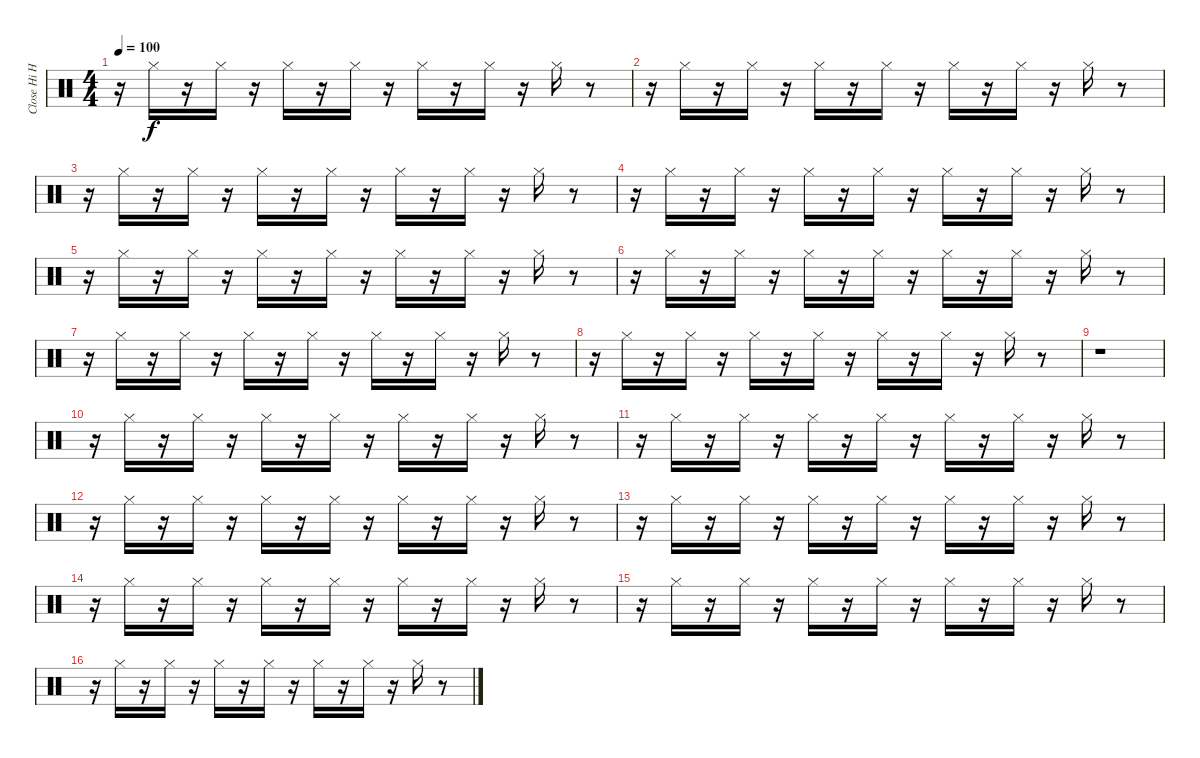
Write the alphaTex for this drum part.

\track ("Close Hi Hat" "Close Hi H") {instrument percussion}
\staff {score}
\articulation defaults
\ts (4 4)
\tempo 100
\clef neutral
\ks c
r.16{dy f} "Hi-Hat (closed)".16 r.16 "Hi-Hat (closed)".16 r.16 "Hi-Hat (closed)".16 r.16 "Hi-Hat (closed)".16 r.16 "Hi-Hat (closed)".16 r.16 "Hi-Hat (closed)".16 r.16 "Hi-Hat (closed)".16 r.8 |
r.16 "Hi-Hat (closed)".16 r.16 "Hi-Hat (closed)".16 r.16 "Hi-Hat (closed)".16 r.16 "Hi-Hat (closed)".16 r.16 "Hi-Hat (closed)".16 r.16 "Hi-Hat (closed)".16 r.16 "Hi-Hat (closed)".16 r.8 |
r.16 "Hi-Hat (closed)".16 r.16 "Hi-Hat (closed)".16 r.16 "Hi-Hat (closed)".16 r.16 "Hi-Hat (closed)".16 r.16 "Hi-Hat (closed)".16 r.16 "Hi-Hat (closed)".16 r.16 "Hi-Hat (closed)".16 r.8 |
r.16 "Hi-Hat (closed)".16 r.16 "Hi-Hat (closed)".16 r.16 "Hi-Hat (closed)".16 r.16 "Hi-Hat (closed)".16 r.16 "Hi-Hat (closed)".16 r.16 "Hi-Hat (closed)".16 r.16 "Hi-Hat (closed)".16 r.8 |
r.16 "Hi-Hat (closed)".16 r.16 "Hi-Hat (closed)".16 r.16 "Hi-Hat (closed)".16 r.16 "Hi-Hat (closed)".16 r.16 "Hi-Hat (closed)".16 r.16 "Hi-Hat (closed)".16 r.16 "Hi-Hat (closed)".16 r.8 |
r.16 "Hi-Hat (closed)".16 r.16 "Hi-Hat (closed)".16 r.16 "Hi-Hat (closed)".16 r.16 "Hi-Hat (closed)".16 r.16 "Hi-Hat (closed)".16 r.16 "Hi-Hat (closed)".16 r.16 "Hi-Hat (closed)".16 r.8 |
r.16 "Hi-Hat (closed)".16 r.16 "Hi-Hat (closed)".16 r.16 "Hi-Hat (closed)".16 r.16 "Hi-Hat (closed)".16 r.16 "Hi-Hat (closed)".16 r.16 "Hi-Hat (closed)".16 r.16 "Hi-Hat (closed)".16 r.8 |
r.16 "Hi-Hat (closed)".16 r.16 "Hi-Hat (closed)".16 r.16 "Hi-Hat (closed)".16 r.16 "Hi-Hat (closed)".16 r.16 "Hi-Hat (closed)".16 r.16 "Hi-Hat (closed)".16 r.16 "Hi-Hat (closed)".16 r.8 |
r.1 |
r.16 "Hi-Hat (closed)".16 r.16 "Hi-Hat (closed)".16 r.16 "Hi-Hat (closed)".16 r.16 "Hi-Hat (closed)".16 r.16 "Hi-Hat (closed)".16 r.16 "Hi-Hat (closed)".16 r.16 "Hi-Hat (closed)".16 r.8 |
r.16 "Hi-Hat (closed)".16 r.16 "Hi-Hat (closed)".16 r.16 "Hi-Hat (closed)".16 r.16 "Hi-Hat (closed)".16 r.16 "Hi-Hat (closed)".16 r.16 "Hi-Hat (closed)".16 r.16 "Hi-Hat (closed)".16 r.8 |
r.16 "Hi-Hat (closed)".16 r.16 "Hi-Hat (closed)".16 r.16 "Hi-Hat (closed)".16 r.16 "Hi-Hat (closed)".16 r.16 "Hi-Hat (closed)".16 r.16 "Hi-Hat (closed)".16 r.16 "Hi-Hat (closed)".16 r.8 |
r.16 "Hi-Hat (closed)".16 r.16 "Hi-Hat (closed)".16 r.16 "Hi-Hat (closed)".16 r.16 "Hi-Hat (closed)".16 r.16 "Hi-Hat (closed)".16 r.16 "Hi-Hat (closed)".16 r.16 "Hi-Hat (closed)".16 r.8 |
r.16 "Hi-Hat (closed)".16 r.16 "Hi-Hat (closed)".16 r.16 "Hi-Hat (closed)".16 r.16 "Hi-Hat (closed)".16 r.16 "Hi-Hat (closed)".16 r.16 "Hi-Hat (closed)".16 r.16 "Hi-Hat (closed)".16 r.8 |
r.16 "Hi-Hat (closed)".16 r.16 "Hi-Hat (closed)".16 r.16 "Hi-Hat (closed)".16 r.16 "Hi-Hat (closed)".16 r.16 "Hi-Hat (closed)".16 r.16 "Hi-Hat (closed)".16 r.16 "Hi-Hat (closed)".16 r.8 |
r.16 "Hi-Hat (closed)".16 r.16 "Hi-Hat (closed)".16 r.16 "Hi-Hat (closed)".16 r.16 "Hi-Hat (closed)".16 r.16 "Hi-Hat (closed)".16 r.16 "Hi-Hat (closed)".16 r.16 "Hi-Hat (closed)".16 r.8
